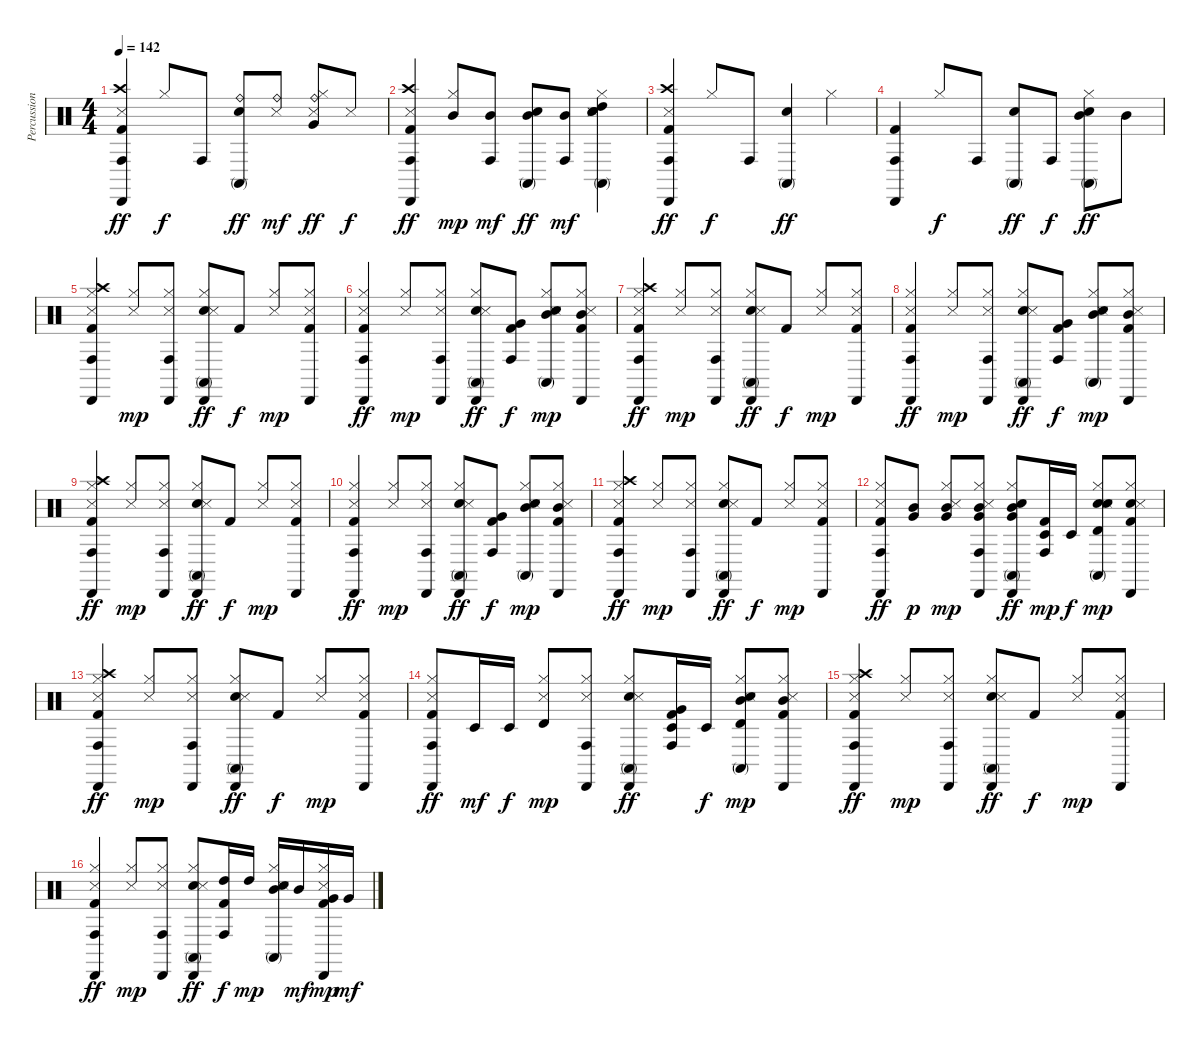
\track ("Percussion Booster" "Percussion") {instrument percussion}
\staff {score}
\articulation defaults
\ts (4 4)
\tempo 142
\clef neutral
\ks c
("Conga high (hit)" "Cabasa (hit)" "Crash high (hit)" "Snare (side stick) 3" "Kick (hit) 2").4{dy ff} "Hi-Hat (closed)".8{dy f} "Conga high (hit)".8 ("Conga high (mute)" "Ride (bell)" "Hand Clap (hit)").8{dy ff} ("Ride (bell)" "Snare (side stick) 3").8{dy mf} ("Very Low Tom (hit)" "Ride (bell)" "Hi-Hat (closed)" "Snare (side stick) 3").8{dy ff} "Snare (side stick) 3".8{dy f} |
("Conga high (hit)" "Cabasa (hit)" "Crash high (hit)" "Snare (side stick) 3" "Kick (hit) 2").4{dy ff} ("Mid Tom (hit)" "Hi-Hat (closed)").8{dy mp} ("Conga high (hit)" "Mid Tom (hit)").8{dy mf} ("Conga high (mute)" "Mid Tom (hit)" "Hand Clap (hit)").8{dy ff} ("Conga high (hit)" "Mid Tom (hit)").8{dy mf} ("Conga high (mute)" "High Tom (hit)" "Hi-Hat (closed)" "Hand Clap (hit)" "Snare (hit) 2" "Snare (side stick) 3").4 |
("Conga high (hit)" "Cabasa (hit)" "Crash high (hit)" "Snare (side stick) 3" "Kick (hit) 2").4{dy ff} "Hi-Hat (closed)".8{dy f} "Conga high (hit)".8 ("Conga high (mute)" "Hand Clap (hit)").4{dy ff} "Hi-Hat (closed)".4 |
("Conga high (hit)" "Cabasa (hit)" "Kick (hit) 2").4 "Hi-Hat (closed)".8{dy f} "Conga high (hit)".8 ("Conga high (mute)" "Hand Clap (hit)").8{dy ff} "Conga high (hit)".8{dy f} ("Conga high (mute)" "Mid Tom (hit)" "Hi-Hat (closed)" "Hand Clap (hit)").8{dy ff} "Mid Tom (hit)".8 |
("Conga high (hit)" "Cabasa (hit)" "Crash high (hit)" "Hi-Hat (closed)" "Snare (side stick) 3" "Kick (hit) 2").4 ("Hi-Hat (closed)" "Snare (side stick) 3").8{dy mp} ("Conga high (hit)" "Cabasa (hit)" "Hi-Hat (closed)" "Snare (side stick) 3").8 ("Conga high (mute)" "Cabasa (hit)" "Hi-Hat (closed)" "Hand Clap (hit)" "Snare (side stick) 3").8{dy ff} "Kick (hit) 2".8{dy f} ("Hi-Hat (closed)" "Snare (side stick) 3").8{dy mp} ("Cabasa (hit)" "Hi-Hat (closed)" "Snare (side stick) 3" "Kick (hit) 2").8 |
("Conga high (hit)" "Cabasa (hit)" "Hi-Hat (closed)" "Snare (side stick) 3" "Kick (hit) 2").4{dy ff} ("Hi-Hat (closed)" "Snare (side stick) 3").8{dy mp} ("Conga high (hit)" "Cabasa (hit)" "Hi-Hat (closed)" "Snare (side stick) 3").8 ("Conga high (mute)" "Cabasa (hit)" "Hi-Hat (closed)" "Hand Clap (hit)" "Snare (side stick) 3").8{dy ff} ("Conga high (hit)" "Very Low Tom (hit)" "Kick (hit) 2").8{dy f} ("Conga high (mute)" "Mid Tom (hit)" "Hi-Hat (closed)" "Hand Clap (hit)" "Snare (side stick) 3").8{dy mp} ("Cabasa (hit)" "Mid Tom (hit)" "Hi-Hat (closed)" "Snare (side stick) 3" "Kick (hit) 2").8 |
("Conga high (hit)" "Cabasa (hit)" "Crash high (hit)" "Hi-Hat (closed)" "Snare (side stick) 3" "Kick (hit) 2").4{dy ff} ("Hi-Hat (closed)" "Snare (side stick) 3").8{dy mp} ("Conga high (hit)" "Cabasa (hit)" "Hi-Hat (closed)" "Snare (side stick) 3").8 ("Conga high (mute)" "Cabasa (hit)" "Hi-Hat (closed)" "Hand Clap (hit)" "Snare (side stick) 3").8{dy ff} "Kick (hit) 2".8{dy f} ("Hi-Hat (closed)" "Snare (side stick) 3").8{dy mp} ("Cabasa (hit)" "Hi-Hat (closed)" "Snare (side stick) 3" "Kick (hit) 2").8 |
("Conga high (hit)" "Cabasa (hit)" "Hi-Hat (closed)" "Snare (side stick) 3" "Kick (hit) 2").4{dy ff} ("Hi-Hat (closed)" "Snare (side stick) 3").8{dy mp} ("Conga high (hit)" "Cabasa (hit)" "Hi-Hat (closed)" "Snare (side stick) 3").8 ("Conga high (mute)" "Cabasa (hit)" "Hi-Hat (closed)" "Hand Clap (hit)" "Snare (side stick) 3").8{dy ff} ("Conga high (hit)" "Very Low Tom (hit)" "Kick (hit) 2").8{dy f} ("Conga high (mute)" "Mid Tom (hit)" "Hi-Hat (closed)" "Hand Clap (hit)" "Snare (side stick) 3").8{dy mp} ("Cabasa (hit)" "Mid Tom (hit)" "Hi-Hat (closed)" "Snare (side stick) 3" "Kick (hit) 2").8 |
("Conga high (hit)" "Cabasa (hit)" "Crash high (hit)" "Hi-Hat (closed)" "Snare (side stick) 3" "Kick (hit) 2").4{dy ff} ("Hi-Hat (closed)" "Snare (side stick) 3").8{dy mp} ("Conga high (hit)" "Cabasa (hit)" "Hi-Hat (closed)" "Snare (side stick) 3").8 ("Conga high (mute)" "Cabasa (hit)" "Hi-Hat (closed)" "Hand Clap (hit)" "Snare (side stick) 3").8{dy ff} "Kick (hit) 2".8{dy f} ("Hi-Hat (closed)" "Snare (side stick) 3").8{dy mp} ("Cabasa (hit)" "Hi-Hat (closed)" "Snare (side stick) 3" "Kick (hit) 2").8 |
("Conga high (hit)" "Cabasa (hit)" "Hi-Hat (closed)" "Snare (side stick) 3" "Kick (hit) 2").4{dy ff} ("Hi-Hat (closed)" "Snare (side stick) 3").8{dy mp} ("Conga high (hit)" "Cabasa (hit)" "Hi-Hat (closed)" "Snare (side stick) 3").8 ("Conga high (mute)" "Cabasa (hit)" "Hi-Hat (closed)" "Hand Clap (hit)" "Snare (side stick) 3").8{dy ff} ("Conga high (hit)" "Very Low Tom (hit)" "Kick (hit) 2").8{dy f} ("Conga high (mute)" "Mid Tom (hit)" "Hi-Hat (closed)" "Hand Clap (hit)" "Snare (side stick) 3").8{dy mp} ("Cabasa (hit)" "Mid Tom (hit)" "Hi-Hat (closed)" "Snare (side stick) 3" "Kick (hit) 2").8 |
("Conga high (hit)" "Cabasa (hit)" "Crash high (hit)" "Hi-Hat (closed)" "Snare (side stick) 3" "Kick (hit) 2").4{dy ff} ("Hi-Hat (closed)" "Snare (side stick) 3").8{dy mp} ("Conga high (hit)" "Cabasa (hit)" "Hi-Hat (closed)" "Snare (side stick) 3").8 ("Conga high (mute)" "Cabasa (hit)" "Hi-Hat (closed)" "Hand Clap (hit)" "Snare (side stick) 3").8{dy ff} "Kick (hit) 2".8{dy f} ("Hi-Hat (closed)" "Snare (side stick) 3").8{dy mp} ("Cabasa (hit)" "Hi-Hat (closed)" "Snare (side stick) 3" "Kick (hit) 2").8 |
("Conga high (hit)" "Cabasa (hit)" "Hi-Hat (closed)" "Snare (side stick) 3" "Kick (hit) 2").8{dy ff} ("Very Low Tom (hit)" "Mid Tom (hit)").8{dy p} ("Very Low Tom (hit)" "Mid Tom (hit)" "Hi-Hat (closed)" "Snare (side stick) 3").8{dy mp} ("Conga high (hit)" "Cabasa (hit)" "Very Low Tom (hit)" "Mid Tom (hit)" "Hi-Hat (closed)" "Snare (side stick) 3").8 ("Conga high (mute)" "Cabasa (hit)" "Very Low Tom (hit)" "Mid Tom (hit)" "Hi-Hat (closed)" "Hand Clap (hit)").8{dy ff} ("Timbale low (hit)" "Conga high (hit)" "Kick (hit) 2").16{dy mp} "Timbale low (hit)".16{dy f} ("Timbale high (hit)" "Conga high (mute)" "Hi-Hat (closed)" "Hand Clap (hit)" "Snare (hit) 2" "Snare (side stick) 3").8{dy mp} ("Cabasa (hit)" "Hi-Hat (closed)" "Snare (hit) 2" "Snare (side stick) 3" "Kick (hit) 2").8 |
("Conga high (hit)" "Cabasa (hit)" "Crash high (hit)" "Hi-Hat (closed)" "Snare (side stick) 3" "Kick (hit) 2").4{dy ff} ("Hi-Hat (closed)" "Snare (side stick) 3").8{dy mp} ("Conga high (hit)" "Cabasa (hit)" "Hi-Hat (closed)" "Snare (side stick) 3").8 ("Conga high (mute)" "Cabasa (hit)" "Hi-Hat (closed)" "Hand Clap (hit)" "Snare (side stick) 3").8{dy ff} "Kick (hit) 2".8{dy f} ("Hi-Hat (closed)" "Snare (side stick) 3").8{dy mp} ("Cabasa (hit)" "Hi-Hat (closed)" "Snare (side stick) 3" "Kick (hit) 2").8 |
("Conga high (hit)" "Cabasa (hit)" "Hi-Hat (closed)" "Snare (side stick) 3" "Kick (hit) 2").8{dy ff} "Timbale low (hit)".16{dy mf} "Timbale low (hit)".16{dy f} ("Timbale high (hit)" "Hi-Hat (closed)" "Snare (side stick) 3").8{dy mp} ("Conga high (hit)" "Cabasa (hit)" "Hi-Hat (closed)" "Snare (side stick) 3").8 ("Conga high (mute)" "Cabasa (hit)" "Hi-Hat (closed)" "Hand Clap (hit)" "Snare (side stick) 3").8{dy ff} ("Timbale low (hit)" "Conga high (hit)" "Very Low Tom (hit)" "Kick (hit) 2").16 "Timbale low (hit)".16{dy f} ("Timbale high (hit)" "Conga high (mute)" "Mid Tom (hit)" "Hi-Hat (closed)" "Hand Clap (hit)" "Snare (side stick) 3").8{dy mp} ("Cabasa (hit)" "Mid Tom (hit)" "Hi-Hat (closed)" "Snare (side stick) 3" "Kick (hit) 2").8 |
("Conga high (hit)" "Cabasa (hit)" "Crash high (hit)" "Hi-Hat (closed)" "Snare (side stick) 3" "Kick (hit) 2").4{dy ff} ("Hi-Hat (closed)" "Snare (side stick) 3").8{dy mp} ("Conga high (hit)" "Cabasa (hit)" "Hi-Hat (closed)" "Snare (side stick) 3").8 ("Conga high (mute)" "Cabasa (hit)" "Hi-Hat (closed)" "Hand Clap (hit)" "Snare (side stick) 3").8{dy ff} "Kick (hit) 2".8{dy f} ("Hi-Hat (closed)" "Snare (side stick) 3").8{dy mp} ("Cabasa (hit)" "Hi-Hat (closed)" "Snare (side stick) 3" "Kick (hit) 2").8 |
("Conga high (hit)" "Cabasa (hit)" "Hi-Hat (closed)" "Snare (side stick) 3" "Kick (hit) 2").4{dy ff} ("Hi-Hat (closed)" "Snare (side stick) 3").8{dy mp} ("Conga high (hit)" "Cabasa (hit)" "Hi-Hat (closed)" "Snare (side stick) 3").8 ("Conga high (mute)" "Cabasa (hit)" "Hi-Hat (closed)" "Hand Clap (hit)" "Snare (side stick) 3").8{dy ff} ("Conga high (hit)" "High Tom (hit)" "Kick (hit) 2").16{dy f} "High Tom (hit)".16{dy mp} ("Conga high (mute)" "Mid Tom (hit)" "Hi-Hat (closed)" "Hand Clap (hit)" "Snare (side stick) 3").16 "Mid Tom (hit)".16{dy mf} ("Cabasa (hit)" "Very Low Tom (hit)" "Hi-Hat (closed)" "Snare (side stick) 3" "Kick (hit) 2").16{dy mp} "Very Low Tom (hit)".16{dy mf}
